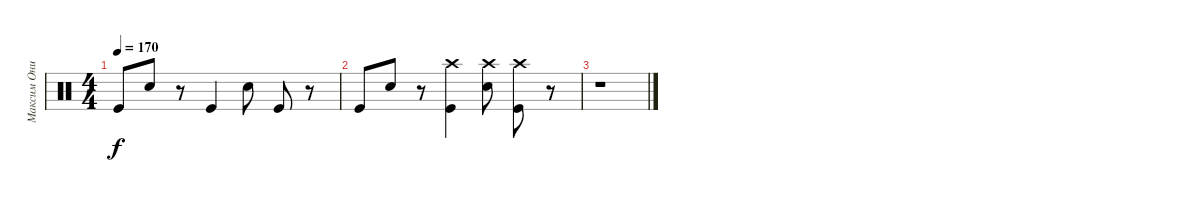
\track ("Максим Онищенко" "Максим Они") {instrument percussion}
\staff {score}
\articulation defaults
\ts (4 4)
\tempo 170
\clef neutral
\ks c "Kick (hit)".8{dy f} "Snare (hit) 2".8
r.8 "Kick (hit)".4 "Snare (hit) 2".8 "Kick (hit)".8 r.8 |
"Kick (hit)".8 "Snare (hit) 2".8 r.8 ("Kick (hit)" "Crash high (hit)").4 ("Snare (hit) 2" "Crash high (hit)").8 ("Kick (hit)" "Crash high (hit)").8 r.8 |
r.1
